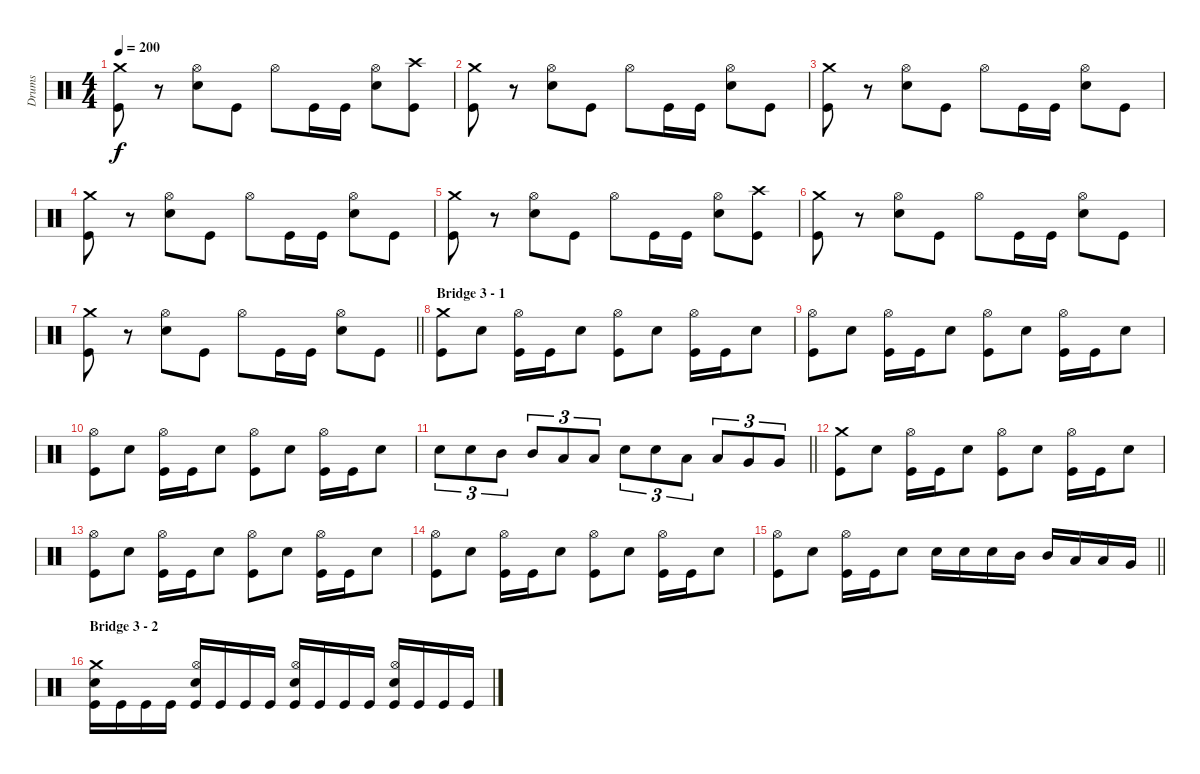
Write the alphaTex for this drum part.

\track ("Drums" "Drums") {instrument percussion}
\staff {score}
\articulation defaults
\ts (4 4)
\tempo 200
\clef neutral
\ks c
("Crash medium (hit)" "Kick (hit)").8{dy f} r.8 ("Hi-Hat (open)" "Snare (hit) 2").8 "Kick (hit)".8 "Hi-Hat (open)".8 "Kick (hit)".16 "Kick (hit)".16 ("Hi-Hat (open)" "Snare (hit) 2").8 ("Crash high (hit)" "Kick (hit)").8 |
("Crash medium (hit)" "Kick (hit)").8 r.8 ("Hi-Hat (open)" "Snare (hit) 2").8 "Kick (hit)".8 "Hi-Hat (open)".8 "Kick (hit)".16 "Kick (hit)".16 ("Hi-Hat (open)" "Snare (hit) 2").8 "Kick (hit)".8 |
("Crash medium (hit)" "Kick (hit)").8 r.8 ("Hi-Hat (open)" "Snare (hit) 2").8 "Kick (hit)".8 "Hi-Hat (open)".8 "Kick (hit)".16 "Kick (hit)".16 ("Hi-Hat (open)" "Snare (hit) 2").8 "Kick (hit)".8 |
("Crash medium (hit)" "Kick (hit)").8 r.8 ("Hi-Hat (open)" "Snare (hit) 2").8 "Kick (hit)".8 "Hi-Hat (open)".8 "Kick (hit)".16 "Kick (hit)".16 ("Hi-Hat (open)" "Snare (hit) 2").8 "Kick (hit)".8 |
("Crash medium (hit)" "Kick (hit)").8 r.8 ("Hi-Hat (open)" "Snare (hit) 2").8 "Kick (hit)".8 "Hi-Hat (open)".8 "Kick (hit)".16 "Kick (hit)".16 ("Hi-Hat (open)" "Snare (hit) 2").8 ("Crash high (hit)" "Kick (hit)").8 |
("Crash medium (hit)" "Kick (hit)").8 r.8 ("Hi-Hat (open)" "Snare (hit) 2").8 "Kick (hit)".8 "Hi-Hat (open)".8 "Kick (hit)".16 "Kick (hit)".16 ("Hi-Hat (open)" "Snare (hit) 2").8 "Kick (hit)".8 |
\barLineRight lightlight
("Crash medium (hit)" "Kick (hit)").8 r.8 ("Hi-Hat (open)" "Snare (hit) 2").8 "Kick (hit)".8 "Hi-Hat (open)".8 "Kick (hit)".16 "Kick (hit)".16 ("Hi-Hat (open)" "Snare (hit) 2").8 "Kick (hit)".8 |
\section ("" "Bridge 3 - 1")
("Crash medium (hit)" "Kick (hit)").8 "Snare (hit) 2".8 ("Hi-Hat (open)" "Kick (hit)").16 "Kick (hit)".16 "Snare (hit) 2".8 ("Hi-Hat (open)" "Kick (hit)").8 "Snare (hit) 2".8 ("Hi-Hat (open)" "Kick (hit)").16 "Kick (hit)".16 "Snare (hit) 2".8 |
("Hi-Hat (open)" "Kick (hit)").8 "Snare (hit) 2".8 ("Hi-Hat (open)" "Kick (hit)").16 "Kick (hit)".16 "Snare (hit) 2".8 ("Hi-Hat (open)" "Kick (hit)").8 "Snare (hit) 2".8 ("Hi-Hat (open)" "Kick (hit)").16 "Kick (hit)".16 "Snare (hit) 2".8 |
("Hi-Hat (open)" "Kick (hit)").8 "Snare (hit) 2".8 ("Hi-Hat (open)" "Kick (hit)").16 "Kick (hit)".16 "Snare (hit) 2".8 ("Hi-Hat (open)" "Kick (hit)").8 "Snare (hit) 2".8 ("Hi-Hat (open)" "Kick (hit)").16 "Kick (hit)".16 "Snare (hit) 2".8 |
\barLineRight lightlight "Snare (hit) 2".8{tu (3 2)} "Snare (hit) 2".8{tu (3 2)} "Mid Tom (hit)".8{tu (3 2)} "Mid Tom (hit)".8{tu (3 2)} "Low Tom (hit)".8{tu (3 2)} "Low Tom (hit)".8{tu (3 2)} "Snare (hit) 2".8{tu (3 2)} "Snare (hit) 2".8{tu (3 2)} "Low Tom (hit)".8{tu (3 2)} "Low Tom (hit)".8{tu (3 2)} "Very Low Tom (hit)".8{tu (3 2)} "Very Low Tom (hit)".8{tu (3 2)}
|
("Crash medium (hit)" "Kick (hit)").8 "Snare (hit) 2".8 ("Hi-Hat (open)" "Kick (hit)").16 "Kick (hit)".16 "Snare (hit) 2".8 ("Hi-Hat (open)" "Kick (hit)").8 "Snare (hit) 2".8 ("Hi-Hat (open)" "Kick (hit)").16 "Kick (hit)".16 "Snare (hit) 2".8 |
("Hi-Hat (open)" "Kick (hit)").8 "Snare (hit) 2".8 ("Hi-Hat (open)" "Kick (hit)").16 "Kick (hit)".16 "Snare (hit) 2".8 ("Hi-Hat (open)" "Kick (hit)").8 "Snare (hit) 2".8 ("Hi-Hat (open)" "Kick (hit)").16 "Kick (hit)".16 "Snare (hit) 2".8 |
("Hi-Hat (open)" "Kick (hit)").8 "Snare (hit) 2".8 ("Hi-Hat (open)" "Kick (hit)").16 "Kick (hit)".16 "Snare (hit) 2".8 ("Hi-Hat (open)" "Kick (hit)").8 "Snare (hit) 2".8 ("Hi-Hat (open)" "Kick (hit)").16 "Kick (hit)".16 "Snare (hit) 2".8 |
\barLineRight lightlight
("Hi-Hat (open)" "Kick (hit)").8 "Snare (hit) 2".8 ("Hi-Hat (open)" "Kick (hit)").16 "Kick (hit)".16 "Snare (hit) 2".8 "Snare (hit) 2".16 "Snare (hit) 2".16 "Snare (hit) 2".16 "Mid Tom (hit)".16 "Mid Tom (hit)".16 "Low Tom (hit)".16 "Low Tom (hit)".16 "Very Low Tom (hit)".16 |
\section ("" "Bridge 3 - 2")
("Crash medium (hit)" "Snare (hit) 2" "Kick (hit)").16 "Kick (hit)".16 "Kick (hit)".16 "Kick (hit)".16 ("Hi-Hat (open)" "Snare (hit) 2" "Kick (hit)").16 "Kick (hit)".16 "Kick (hit)".16 "Kick (hit)".16 ("Hi-Hat (open)" "Snare (hit) 2" "Kick (hit)").16 "Kick (hit)".16 "Kick (hit)".16 "Kick (hit)".16 ("Hi-Hat (open)" "Snare (hit) 2" "Kick (hit)").16 "Kick (hit)".16 "Kick (hit)".16 "Kick (hit)".16
